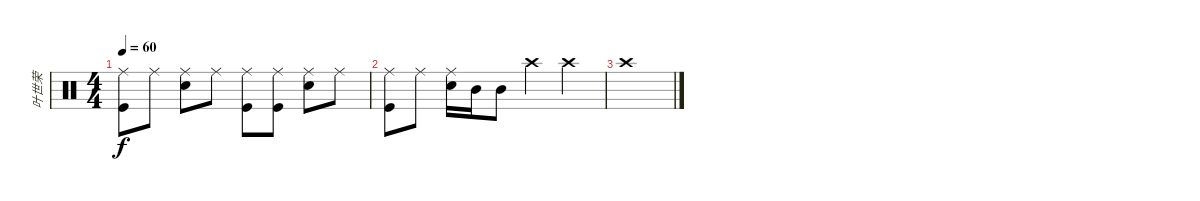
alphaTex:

\track ("叶世荣" "叶世荣") {instrument percussion}
\staff {score}
\articulation defaults
\ts (4 4)
\tempo 60
\clef neutral
\ks c
("Ride (middle)" "Kick (hit)").8{dy f} "Ride (middle)".8 ("Ride (middle)" "Snare (hit) 2").8 "Ride (middle)".8 ("Ride (middle)" "Kick (hit)").8 ("Ride (middle)" "Kick (hit)").8 ("Ride (middle)" "Snare (hit) 2").8 "Ride (middle)".8 |
("Ride (middle)" "Kick (hit)").8 "Ride (middle)".8 ("Ride (middle)" "Snare (hit) 2").16 "Mid Tom (hit)".16 "Mid Tom (hit)".8 "Crash high (hit)".4 "Crash high (hit)".4 |
"Crash high (hit)".1
